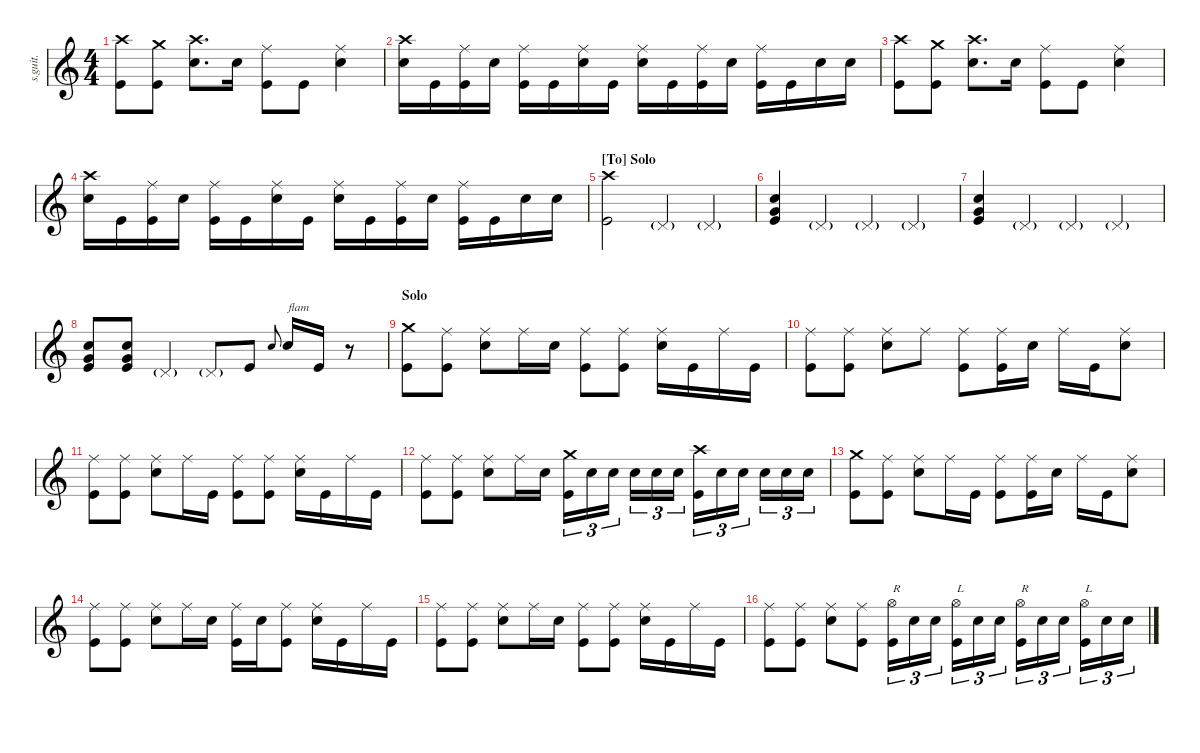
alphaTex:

\defaultSystemsLayout 4
\hideDynamics
\bracketExtendMode nobrackets
\track ("Dave Grohl" "s.guit.") {instrument percussion}
\staff {score}
\articulation defaults
\ts (4 4)
\tempo (105 hide)
\clef g2
\ks c
("Crash high (hit)" "Kick (hit)").8{lyrics (0 "") lyrics (1 "") lyrics (2 "") lyrics (3 "") lyrics (4 "") dy f} ("Kick (hit)" "Crash medium (hit)").8{lyrics (0 "") lyrics (1 "") lyrics (2 "") lyrics (3 "") lyrics (4 "")} ("Snare (hit) 2" "Crash high (hit)").8{d lyrics (0 "") lyrics (1 "") lyrics (2 "") lyrics (3 "") lyrics (4 "")} "Snare (hit) 2".16{lyrics (0 "") lyrics (1 "") lyrics (2 "") lyrics (3 "") lyrics (4 "")} ("Ride (middle)" "Kick (hit)").8{lyrics (0 "") lyrics (1 "") lyrics (2 "") lyrics (3 "") lyrics (4 "")} "Kick (hit)".8{lyrics (0 "") lyrics (1 "") lyrics (2 "") lyrics (3 "") lyrics (4 "")} ("Ride (middle)" "Snare (hit) 2").4{lyrics (0 "") lyrics (1 "") lyrics (2 "") lyrics (3 "") lyrics (4 "")} |
("Crash high (hit)" "Snare (hit) 2").16{lyrics (0 "") lyrics (1 "") lyrics (2 "") lyrics (3 "") lyrics (4 "")} "Kick (hit)".16{lyrics (0 "") lyrics (1 "") lyrics (2 "") lyrics (3 "") lyrics (4 "")} ("Ride (middle)" "Kick (hit)").16{lyrics (0 "") lyrics (1 "") lyrics (2 "") lyrics (3 "") lyrics (4 "")} "Snare (hit) 2".16{lyrics (0 "") lyrics (1 "") lyrics (2 "") lyrics (3 "") lyrics (4 "")} ("Ride (middle)" "Kick (hit)").16{lyrics (0 "") lyrics (1 "") lyrics (2 "") lyrics (3 "") lyrics (4 "")} "Kick (hit)".16{lyrics (0 "") lyrics (1 "") lyrics (2 "") lyrics (3 "") lyrics (4 "")} ("Ride (middle)" "Snare (hit) 2").16{lyrics (0 "") lyrics (1 "") lyrics (2 "") lyrics (3 "") lyrics (4 "")} "Kick (hit)".16{lyrics (0 "") lyrics (1 "") lyrics (2 "") lyrics (3 "") lyrics (4 "")} ("Ride (middle)" "Snare (hit) 2").16{lyrics (0 "") lyrics (1 "") lyrics (2 "") lyrics (3 "") lyrics (4 "")} "Kick (hit)".16{lyrics (0 "") lyrics (1 "") lyrics (2 "") lyrics (3 "") lyrics (4 "")} ("Ride (middle)" "Kick (hit)").16{lyrics (0 "") lyrics (1 "") lyrics (2 "") lyrics (3 "") lyrics (4 "")} "Snare (hit) 2".16{lyrics (0 "") lyrics (1 "") lyrics (2 "") lyrics (3 "") lyrics (4 "")} ("Ride (middle)" "Kick (hit)").16{lyrics (0 "") lyrics (1 "") lyrics (2 "") lyrics (3 "") lyrics (4 "")} "Kick (hit)".16{lyrics (0 "") lyrics (1 "") lyrics (2 "") lyrics (3 "") lyrics (4 "")} "Snare (hit) 2".16{lyrics (0 "") lyrics (1 "") lyrics (2 "") lyrics (3 "") lyrics (4 "")} "Snare (hit) 2".16{lyrics (0 "") lyrics (1 "") lyrics (2 "") lyrics (3 "") lyrics (4 "")} |
("Crash high (hit)" "Kick (hit)").8{lyrics (0 "") lyrics (1 "") lyrics (2 "") lyrics (3 "") lyrics (4 "")} ("Kick (hit)" "Crash medium (hit)").8{lyrics (0 "") lyrics (1 "") lyrics (2 "") lyrics (3 "") lyrics (4 "")} ("Snare (hit) 2" "Crash high (hit)").8{d lyrics (0 "") lyrics (1 "") lyrics (2 "") lyrics (3 "") lyrics (4 "")} "Snare (hit) 2".16{lyrics (0 "") lyrics (1 "") lyrics (2 "") lyrics (3 "") lyrics (4 "")} ("Ride (middle)" "Kick (hit)").8{lyrics (0 "") lyrics (1 "") lyrics (2 "") lyrics (3 "") lyrics (4 "")} "Kick (hit)".8{lyrics (0 "") lyrics (1 "") lyrics (2 "") lyrics (3 "") lyrics (4 "")} ("Ride (middle)" "Snare (hit) 2").4{lyrics (0 "") lyrics (1 "") lyrics (2 "") lyrics (3 "") lyrics (4 "")} |
("Crash high (hit)" "Snare (hit) 2").16{lyrics (0 "") lyrics (1 "") lyrics (2 "") lyrics (3 "") lyrics (4 "")} "Kick (hit)".16{lyrics (0 "") lyrics (1 "") lyrics (2 "") lyrics (3 "") lyrics (4 "")} ("Ride (middle)" "Kick (hit)").16{lyrics (0 "") lyrics (1 "") lyrics (2 "") lyrics (3 "") lyrics (4 "")} "Snare (hit) 2".16{lyrics (0 "") lyrics (1 "") lyrics (2 "") lyrics (3 "") lyrics (4 "")} ("Ride (middle)" "Kick (hit)").16{lyrics (0 "") lyrics (1 "") lyrics (2 "") lyrics (3 "") lyrics (4 "")} "Kick (hit)".16{lyrics (0 "") lyrics (1 "") lyrics (2 "") lyrics (3 "") lyrics (4 "")} ("Ride (middle)" "Snare (hit) 2").16{lyrics (0 "") lyrics (1 "") lyrics (2 "") lyrics (3 "") lyrics (4 "")} "Kick (hit)".16{lyrics (0 "") lyrics (1 "") lyrics (2 "") lyrics (3 "") lyrics (4 "")} ("Ride (middle)" "Snare (hit) 2").16{lyrics (0 "") lyrics (1 "") lyrics (2 "") lyrics (3 "") lyrics (4 "")} "Kick (hit)".16{lyrics (0 "") lyrics (1 "") lyrics (2 "") lyrics (3 "") lyrics (4 "")} ("Ride (middle)" "Kick (hit)").16{lyrics (0 "") lyrics (1 "") lyrics (2 "") lyrics (3 "") lyrics (4 "")} "Snare (hit) 2".16{lyrics (0 "") lyrics (1 "") lyrics (2 "") lyrics (3 "") lyrics (4 "")} ("Ride (middle)" "Kick (hit)").16{lyrics (0 "") lyrics (1 "") lyrics (2 "") lyrics (3 "") lyrics (4 "")} "Kick (hit)".16{lyrics (0 "") lyrics (1 "") lyrics (2 "") lyrics (3 "") lyrics (4 "")} "Snare (hit) 2".16{lyrics (0 "") lyrics (1 "") lyrics (2 "") lyrics (3 "") lyrics (4 "")} "Snare (hit) 2".16{lyrics (0 "") lyrics (1 "") lyrics (2 "") lyrics (3 "") lyrics (4 "")} |
\section ("To" "Solo")
("Kick (hit)" "Crash high (hit)").2{lyrics (0 "") lyrics (1 "") lyrics (2 "") lyrics (3 "") lyrics (4 "")} "Pedal Hi-Hat (hit)"{g}.4{lyrics (0 "") lyrics (1 "") lyrics (2 "") lyrics (3 "") lyrics (4 "")} "Pedal Hi-Hat (hit)"{g}.4{lyrics (0 "") lyrics (1 "") lyrics (2 "") lyrics (3 "") lyrics (4 "")} |
("Very Low Tom (hit)" "Kick (hit)" "Snare (hit) 2").4{lyrics (0 "") lyrics (1 "") lyrics (2 "") lyrics (3 "") lyrics (4 "")} "Pedal Hi-Hat (hit)"{g}.4{lyrics (0 "") lyrics (1 "") lyrics (2 "") lyrics (3 "") lyrics (4 "")} "Pedal Hi-Hat (hit)"{g}.4{lyrics (0 "") lyrics (1 "") lyrics (2 "") lyrics (3 "") lyrics (4 "")} "Pedal Hi-Hat (hit)"{g}.4{lyrics (0 "") lyrics (1 "") lyrics (2 "") lyrics (3 "") lyrics (4 "")} |
("Very Low Tom (hit)" "Kick (hit)" "Snare (hit) 2").4{lyrics (0 "") lyrics (1 "") lyrics (2 "") lyrics (3 "") lyrics (4 "")} "Pedal Hi-Hat (hit)"{g}.4{lyrics (0 "") lyrics (1 "") lyrics (2 "") lyrics (3 "") lyrics (4 "")} "Pedal Hi-Hat (hit)"{g}.4{lyrics (0 "") lyrics (1 "") lyrics (2 "") lyrics (3 "") lyrics (4 "")} "Pedal Hi-Hat (hit)"{g}.4{lyrics (0 "") lyrics (1 "") lyrics (2 "") lyrics (3 "") lyrics (4 "")} |
("Very Low Tom (hit)" "Kick (hit)" "Snare (hit) 2").8{lyrics (0 "") lyrics (1 "") lyrics (2 "") lyrics (3 "") lyrics (4 "")} ("Very Low Tom (hit)" "Kick (hit)" "Snare (hit) 2").8{lyrics (0 "") lyrics (1 "") lyrics (2 "") lyrics (3 "") lyrics (4 "")} "Pedal Hi-Hat (hit)"{g}.4{lyrics (0 "") lyrics (1 "") lyrics (2 "") lyrics (3 "") lyrics (4 "")} "Pedal Hi-Hat (hit)"{g}.8{lyrics (0 "") lyrics (1 "") lyrics (2 "") lyrics (3 "") lyrics (4 "")} "Kick (hit)".8{lyrics (0 "") lyrics (1 "") lyrics (2 "") lyrics (3 "") lyrics (4 "")} "Snare (hit) 2".8{lyrics (0 "") lyrics (1 "") lyrics (2 "") lyrics (3 "") lyrics (4 "") gr onbeat} "Snare (hit) 2".16{txt "flam" lyrics (0 "") lyrics (1 "") lyrics (2 "") lyrics (3 "") lyrics (4 "")} "Kick (hit)".16{lyrics (0 "") lyrics (1 "") lyrics (2 "") lyrics (3 "") lyrics (4 "")} r.8 |
\section ("" "Solo")
("Crash medium (hit)" "Kick (hit)").8{lyrics (0 "") lyrics (1 "") lyrics (2 "") lyrics (3 "") lyrics (4 "")} ("Ride (middle)" "Kick (hit)").8{lyrics (0 "") lyrics (1 "") lyrics (2 "") lyrics (3 "") lyrics (4 "")} ("Ride (middle)" "Snare (hit) 2").8{lyrics (0 "") lyrics (1 "") lyrics (2 "") lyrics (3 "") lyrics (4 "")} "Ride (middle)".16{lyrics (0 "") lyrics (1 "") lyrics (2 "") lyrics (3 "") lyrics (4 "")} "Snare (hit) 2".16{lyrics (0 "") lyrics (1 "") lyrics (2 "") lyrics (3 "") lyrics (4 "")} ("Ride (middle)" "Kick (hit)").8{lyrics (0 "") lyrics (1 "") lyrics (2 "") lyrics (3 "") lyrics (4 "")} ("Ride (middle)" "Kick (hit)").8{lyrics (0 "") lyrics (1 "") lyrics (2 "") lyrics (3 "") lyrics (4 "")} ("Ride (middle)" "Snare (hit) 2").16{lyrics (0 "") lyrics (1 "") lyrics (2 "") lyrics (3 "") lyrics (4 "")} "Kick (hit)".16{lyrics (0 "") lyrics (1 "") lyrics (2 "") lyrics (3 "") lyrics (4 "")} "Ride (middle)".16{lyrics (0 "") lyrics (1 "") lyrics (2 "") lyrics (3 "") lyrics (4 "")} "Kick (hit)".16{lyrics (0 "") lyrics (1 "") lyrics (2 "") lyrics (3 "") lyrics (4 "")} |
("Ride (middle)" "Kick (hit)").8{lyrics (0 "") lyrics (1 "") lyrics (2 "") lyrics (3 "") lyrics (4 "")} ("Ride (middle)" "Kick (hit)").8{lyrics (0 "") lyrics (1 "") lyrics (2 "") lyrics (3 "") lyrics (4 "")} ("Ride (middle)" "Snare (hit) 2").8{lyrics (0 "") lyrics (1 "") lyrics (2 "") lyrics (3 "") lyrics (4 "")} "Ride (middle)".8{lyrics (0 "") lyrics (1 "") lyrics (2 "") lyrics (3 "") lyrics (4 "")} ("Ride (middle)" "Kick (hit)").8{lyrics (0 "") lyrics (1 "") lyrics (2 "") lyrics (3 "") lyrics (4 "")} ("Ride (middle)" "Kick (hit)").16{lyrics (0 "") lyrics (1 "") lyrics (2 "") lyrics (3 "") lyrics (4 "")} "Snare (hit) 2".16{lyrics (0 "") lyrics (1 "") lyrics (2 "") lyrics (3 "") lyrics (4 "")} "Ride (middle)".16{lyrics (0 "") lyrics (1 "") lyrics (2 "") lyrics (3 "") lyrics (4 "")} "Kick (hit)".16{lyrics (0 "") lyrics (1 "") lyrics (2 "") lyrics (3 "") lyrics (4 "")} ("Ride (middle)" "Snare (hit) 2").8{lyrics (0 "") lyrics (1 "") lyrics (2 "") lyrics (3 "") lyrics (4 "")} |
("Ride (middle)" "Kick (hit)").8{lyrics (0 "") lyrics (1 "") lyrics (2 "") lyrics (3 "") lyrics (4 "")} ("Ride (middle)" "Kick (hit)").8{lyrics (0 "") lyrics (1 "") lyrics (2 "") lyrics (3 "") lyrics (4 "")} ("Ride (middle)" "Snare (hit) 2").8{lyrics (0 "") lyrics (1 "") lyrics (2 "") lyrics (3 "") lyrics (4 "")} "Ride (middle)".16{lyrics (0 "") lyrics (1 "") lyrics (2 "") lyrics (3 "") lyrics (4 "")} "Kick (hit)".16{lyrics (0 "") lyrics (1 "") lyrics (2 "") lyrics (3 "") lyrics (4 "")} ("Ride (middle)" "Kick (hit)").8{lyrics (0 "") lyrics (1 "") lyrics (2 "") lyrics (3 "") lyrics (4 "")} ("Ride (middle)" "Kick (hit)").8{lyrics (0 "") lyrics (1 "") lyrics (2 "") lyrics (3 "") lyrics (4 "")} ("Ride (middle)" "Snare (hit) 2").16{lyrics (0 "") lyrics (1 "") lyrics (2 "") lyrics (3 "") lyrics (4 "")} "Kick (hit)".16{lyrics (0 "") lyrics (1 "") lyrics (2 "") lyrics (3 "") lyrics (4 "")} "Ride (middle)".16{lyrics (0 "") lyrics (1 "") lyrics (2 "") lyrics (3 "") lyrics (4 "")} "Kick (hit)".16{lyrics (0 "") lyrics (1 "") lyrics (2 "") lyrics (3 "") lyrics (4 "")} |
("Ride (middle)" "Kick (hit)").8{lyrics (0 "") lyrics (1 "") lyrics (2 "") lyrics (3 "") lyrics (4 "")} ("Ride (middle)" "Kick (hit)").8{lyrics (0 "") lyrics (1 "") lyrics (2 "") lyrics (3 "") lyrics (4 "")} ("Ride (middle)" "Snare (hit) 2").8{lyrics (0 "") lyrics (1 "") lyrics (2 "") lyrics (3 "") lyrics (4 "")} "Ride (middle)".16{lyrics (0 "") lyrics (1 "") lyrics (2 "") lyrics (3 "") lyrics (4 "")} "Snare (hit) 2".16{lyrics (0 "") lyrics (1 "") lyrics (2 "") lyrics (3 "") lyrics (4 "") dy mf} ("Kick (hit)" "Crash medium (hit)").16{tu (3 2) lyrics (0 "") lyrics (1 "") lyrics (2 "") lyrics (3 "") lyrics (4 "") dy f} "Snare (hit) 2".16{tu (3 2) lyrics (0 "") lyrics (1 "") lyrics (2 "") lyrics (3 "") lyrics (4 "") dy mp} "Snare (hit) 2".16{tu (3 2) lyrics (0 "") lyrics (1 "") lyrics (2 "") lyrics (3 "") lyrics (4 "") dy mf} "Snare (hit) 2".16{tu (3 2) lyrics (0 "") lyrics (1 "") lyrics (2 "") lyrics (3 "") lyrics (4 "") dy f} "Snare (hit) 2".16{tu (3 2) lyrics (0 "") lyrics (1 "") lyrics (2 "") lyrics (3 "") lyrics (4 "")} "Snare (hit) 2".16{tu (3 2) lyrics (0 "") lyrics (1 "") lyrics (2 "") lyrics (3 "") lyrics (4 "")} ("Crash high (hit)" "Kick (hit)").16{tu (3 2) lyrics (0 "") lyrics (1 "") lyrics (2 "") lyrics (3 "") lyrics (4 "")} "Snare (hit) 2".16{tu (3 2) lyrics (0 "") lyrics (1 "") lyrics (2 "") lyrics (3 "") lyrics (4 "") dy mp} "Snare (hit) 2".16{tu (3 2) lyrics (0 "") lyrics (1 "") lyrics (2 "") lyrics (3 "") lyrics (4 "") dy mf} "Snare (hit) 2".16{tu (3 2) lyrics (0 "") lyrics (1 "") lyrics (2 "") lyrics (3 "") lyrics (4 "") dy f} "Snare (hit) 2".16{tu (3 2) lyrics (0 "") lyrics (1 "") lyrics (2 "") lyrics (3 "") lyrics (4 "")} "Snare (hit) 2".16{tu (3 2) lyrics (0 "") lyrics (1 "") lyrics (2 "") lyrics (3 "") lyrics (4 "")} |
("Crash medium (hit)" "Kick (hit)").8{lyrics (0 "") lyrics (1 "") lyrics (2 "") lyrics (3 "") lyrics (4 "")} ("Ride (middle)" "Kick (hit)").8{lyrics (0 "") lyrics (1 "") lyrics (2 "") lyrics (3 "") lyrics (4 "")} ("Ride (middle)" "Snare (hit) 2").8{lyrics (0 "") lyrics (1 "") lyrics (2 "") lyrics (3 "") lyrics (4 "")} "Ride (middle)".16{lyrics (0 "") lyrics (1 "") lyrics (2 "") lyrics (3 "") lyrics (4 "")} "Kick (hit)".16{lyrics (0 "") lyrics (1 "") lyrics (2 "") lyrics (3 "") lyrics (4 "")} ("Ride (middle)" "Kick (hit)").8{lyrics (0 "") lyrics (1 "") lyrics (2 "") lyrics (3 "") lyrics (4 "")} ("Ride (middle)" "Kick (hit)").16{lyrics (0 "") lyrics (1 "") lyrics (2 "") lyrics (3 "") lyrics (4 "")} "Snare (hit) 2".16{lyrics (0 "") lyrics (1 "") lyrics (2 "") lyrics (3 "") lyrics (4 "")} "Ride (middle)".16{lyrics (0 "") lyrics (1 "") lyrics (2 "") lyrics (3 "") lyrics (4 "")} "Kick (hit)".16{lyrics (0 "") lyrics (1 "") lyrics (2 "") lyrics (3 "") lyrics (4 "")} ("Ride (middle)" "Snare (hit) 2").8{lyrics (0 "") lyrics (1 "") lyrics (2 "") lyrics (3 "") lyrics (4 "")} |
("Ride (middle)" "Kick (hit)").8{lyrics (0 "") lyrics (1 "") lyrics (2 "") lyrics (3 "") lyrics (4 "")} ("Ride (middle)" "Kick (hit)").8{lyrics (0 "") lyrics (1 "") lyrics (2 "") lyrics (3 "") lyrics (4 "")} ("Ride (middle)" "Snare (hit) 2").8{lyrics (0 "") lyrics (1 "") lyrics (2 "") lyrics (3 "") lyrics (4 "")} "Ride (middle)".16{lyrics (0 "") lyrics (1 "") lyrics (2 "") lyrics (3 "") lyrics (4 "")} "Snare (hit) 2".16{lyrics (0 "") lyrics (1 "") lyrics (2 "") lyrics (3 "") lyrics (4 "")} ("Ride (middle)" "Kick (hit)").16{lyrics (0 "") lyrics (1 "") lyrics (2 "") lyrics (3 "") lyrics (4 "")} "Snare (hit) 2".16{lyrics (0 "") lyrics (1 "") lyrics (2 "") lyrics (3 "") lyrics (4 "") dy mf} ("Ride (middle)" "Kick (hit)").8{lyrics (0 "") lyrics (1 "") lyrics (2 "") lyrics (3 "") lyrics (4 "") dy f} ("Ride (middle)" "Snare (hit) 2").16{lyrics (0 "") lyrics (1 "") lyrics (2 "") lyrics (3 "") lyrics (4 "")} "Kick (hit)".16{lyrics (0 "") lyrics (1 "") lyrics (2 "") lyrics (3 "") lyrics (4 "")} "Ride (middle)".16{lyrics (0 "") lyrics (1 "") lyrics (2 "") lyrics (3 "") lyrics (4 "")} "Kick (hit)".16{lyrics (0 "") lyrics (1 "") lyrics (2 "") lyrics (3 "") lyrics (4 "")} |
("Ride (middle)" "Kick (hit)").8{lyrics (0 "") lyrics (1 "") lyrics (2 "") lyrics (3 "") lyrics (4 "")} ("Ride (middle)" "Kick (hit)").8{lyrics (0 "") lyrics (1 "") lyrics (2 "") lyrics (3 "") lyrics (4 "")} ("Ride (middle)" "Snare (hit) 2").8{lyrics (0 "") lyrics (1 "") lyrics (2 "") lyrics (3 "") lyrics (4 "")} "Ride (middle)".16{lyrics (0 "") lyrics (1 "") lyrics (2 "") lyrics (3 "") lyrics (4 "")} "Snare (hit) 2".16{lyrics (0 "") lyrics (1 "") lyrics (2 "") lyrics (3 "") lyrics (4 "")} ("Ride (middle)" "Kick (hit)").8{lyrics (0 "") lyrics (1 "") lyrics (2 "") lyrics (3 "") lyrics (4 "")} ("Ride (middle)" "Kick (hit)").8{lyrics (0 "") lyrics (1 "") lyrics (2 "") lyrics (3 "") lyrics (4 "")} ("Ride (middle)" "Snare (hit) 2").16{lyrics (0 "") lyrics (1 "") lyrics (2 "") lyrics (3 "") lyrics (4 "")} "Kick (hit)".16{lyrics (0 "") lyrics (1 "") lyrics (2 "") lyrics (3 "") lyrics (4 "")} "Ride (middle)".16{lyrics (0 "") lyrics (1 "") lyrics (2 "") lyrics (3 "") lyrics (4 "")} "Kick (hit)".16{lyrics (0 "") lyrics (1 "") lyrics (2 "") lyrics (3 "") lyrics (4 "")} |
("Ride (middle)" "Kick (hit)").8{lyrics (0 "") lyrics (1 "") lyrics (2 "") lyrics (3 "") lyrics (4 "")} ("Ride (middle)" "Kick (hit)").8{lyrics (0 "") lyrics (1 "") lyrics (2 "") lyrics (3 "") lyrics (4 "")} ("Ride (middle)" "Snare (hit) 2").8{lyrics (0 "") lyrics (1 "") lyrics (2 "") lyrics (3 "") lyrics (4 "")} ("Ride (middle)" "Kick (hit)").8{lyrics (0 "") lyrics (1 "") lyrics (2 "") lyrics (3 "") lyrics (4 "")} ("Kick (hit)" "Hi-Hat (open)").16{tu (3 2) txt "R" lyrics (0 "") lyrics (1 "") lyrics (2 "") lyrics (3 "") lyrics (4 "")} "Snare (hit) 2".16{tu (3 2) lyrics (0 "") lyrics (1 "") lyrics (2 "") lyrics (3 "") lyrics (4 "")} "Snare (hit) 2".16{tu (3 2) lyrics (0 "") lyrics (1 "") lyrics (2 "") lyrics (3 "") lyrics (4 "")} ("Hi-Hat (open)" "Kick (hit)").16{tu (3 2) txt "L" lyrics (0 "") lyrics (1 "") lyrics (2 "") lyrics (3 "") lyrics (4 "")} "Snare (hit) 2".16{tu (3 2) lyrics (0 "") lyrics (1 "") lyrics (2 "") lyrics (3 "") lyrics (4 "")} "Snare (hit) 2".16{tu (3 2) lyrics (0 "") lyrics (1 "") lyrics (2 "") lyrics (3 "") lyrics (4 "")} ("Kick (hit)" "Hi-Hat (open)").16{tu (3 2) txt "R" lyrics (0 "") lyrics (1 "") lyrics (2 "") lyrics (3 "") lyrics (4 "")} "Snare (hit) 2".16{tu (3 2) lyrics (0 "") lyrics (1 "") lyrics (2 "") lyrics (3 "") lyrics (4 "")} "Snare (hit) 2".16{tu (3 2) lyrics (0 "") lyrics (1 "") lyrics (2 "") lyrics (3 "") lyrics (4 "")} ("Kick (hit)" "Hi-Hat (open)").16{tu (3 2) txt "L" lyrics (0 "") lyrics (1 "") lyrics (2 "") lyrics (3 "") lyrics (4 "")} "Snare (hit) 2".16{tu (3 2) lyrics (0 "") lyrics (1 "") lyrics (2 "") lyrics (3 "") lyrics (4 "")} "Snare (hit) 2".16{tu (3 2) lyrics (0 "") lyrics (1 "") lyrics (2 "") lyrics (3 "") lyrics (4 "")}
